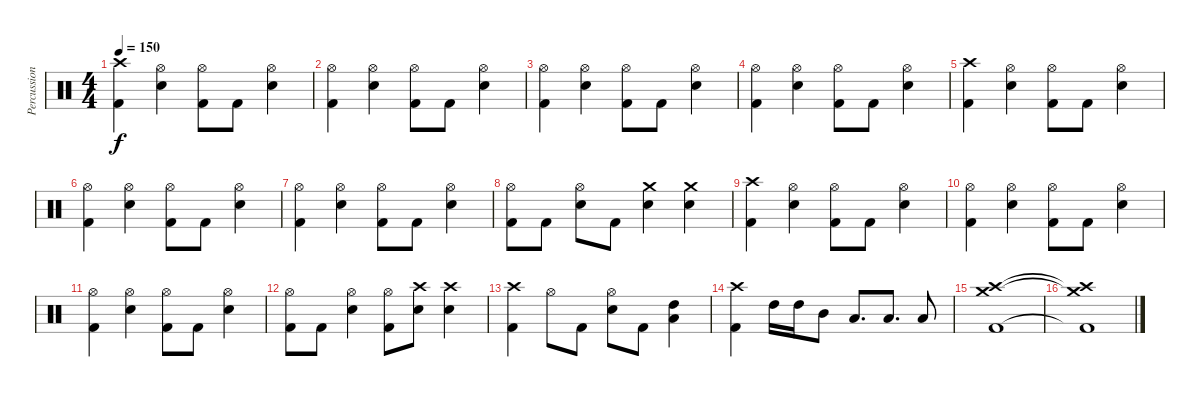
\track ("Percussion" "Percussion") {instrument percussion}
\staff {score}
\articulation defaults
\ts (4 4)
\tempo 150
\clef neutral
\ks c
("Crash high (hit)" "Kick (hit) 2").4{dy f} ("Hi-Hat (open)" "Snare (hit) 2").4 ("Hi-Hat (open)" "Kick (hit) 2").8 "Kick (hit) 2".8 ("Hi-Hat (open)" "Snare (hit) 2").4 |
("Hi-Hat (open)" "Kick (hit) 2").4 ("Hi-Hat (open)" "Snare (hit) 2").4 ("Hi-Hat (open)" "Kick (hit) 2").8 "Kick (hit) 2".8 ("Hi-Hat (open)" "Snare (hit) 2").4 |
("Hi-Hat (open)" "Kick (hit) 2").4 ("Hi-Hat (open)" "Snare (hit) 2").4 ("Hi-Hat (open)" "Kick (hit) 2").8 "Kick (hit) 2".8 ("Hi-Hat (open)" "Snare (hit) 2").4 |
("Hi-Hat (open)" "Kick (hit) 2").4 ("Hi-Hat (open)" "Snare (hit) 2").4 ("Hi-Hat (open)" "Kick (hit) 2").8 "Kick (hit) 2".8 ("Hi-Hat (open)" "Snare (hit) 2").4 |
("Crash high (hit)" "Kick (hit) 2").4 ("Hi-Hat (open)" "Snare (hit) 2").4 ("Hi-Hat (open)" "Kick (hit) 2").8 "Kick (hit) 2".8 ("Hi-Hat (open)" "Snare (hit) 2").4 |
("Hi-Hat (open)" "Kick (hit) 2").4 ("Hi-Hat (open)" "Snare (hit) 2").4 ("Hi-Hat (open)" "Kick (hit) 2").8 "Kick (hit) 2".8 ("Hi-Hat (open)" "Snare (hit) 2").4 |
("Hi-Hat (open)" "Kick (hit) 2").4 ("Hi-Hat (open)" "Snare (hit) 2").4 ("Hi-Hat (open)" "Kick (hit) 2").8 "Kick (hit) 2".8 ("Hi-Hat (open)" "Snare (hit) 2").4 |
("Hi-Hat (open)" "Kick (hit) 2").8 "Kick (hit) 2".8 ("Hi-Hat (open)" "Snare (hit) 2").8 "Kick (hit) 2".8 ("Crash medium (hit)" "Snare (hit) 2").4 ("Crash medium (hit)" "Snare (hit) 2").4 |
("Crash high (hit)" "Kick (hit) 2").4 ("Hi-Hat (open)" "Snare (hit) 2").4 ("Hi-Hat (open)" "Kick (hit) 2").8 "Kick (hit) 2".8 ("Hi-Hat (open)" "Snare (hit) 2").4 |
("Hi-Hat (open)" "Kick (hit) 2").4 ("Hi-Hat (open)" "Snare (hit) 2").4 ("Hi-Hat (open)" "Kick (hit) 2").8 "Kick (hit) 2".8 ("Hi-Hat (open)" "Snare (hit) 2").4 |
("Hi-Hat (open)" "Kick (hit) 2").4 ("Hi-Hat (open)" "Snare (hit) 2").4 ("Hi-Hat (open)" "Kick (hit) 2").8 "Kick (hit) 2".8 ("Hi-Hat (open)" "Snare (hit) 2").4 |
("Hi-Hat (open)" "Kick (hit) 2").8 "Kick (hit) 2".8 ("Hi-Hat (open)" "Snare (hit) 2").4 ("Hi-Hat (open)" "Kick (hit) 2").8 ("Crash high (hit)" "Snare (hit) 2").8 ("Crash high (hit)" "Snare (hit) 2").4 |
("Crash high (hit)" "Kick (hit) 2").4 "Hi-Hat (open)".8 "Kick (hit) 2".8 ("Hi-Hat (open)" "Snare (hit) 2").8 "Kick (hit) 2".8 ("High Tom (hit)" "Low Tom (hit)").4 |
("Crash high (hit)" "Kick (hit) 2").4 "High Tom (hit)".16 "High Tom (hit)".16 "Mid Tom (hit)".8 "Low Tom (hit)".8{d} "Low Tom (hit)".8{d} "Low Tom (hit)".8 |
("Crash high (hit)" "Crash medium (hit)" "Kick (hit) 2").1 |
("Crash high (hit)"{t} "Crash medium (hit)"{t} "Kick (hit) 2"{t}).1
